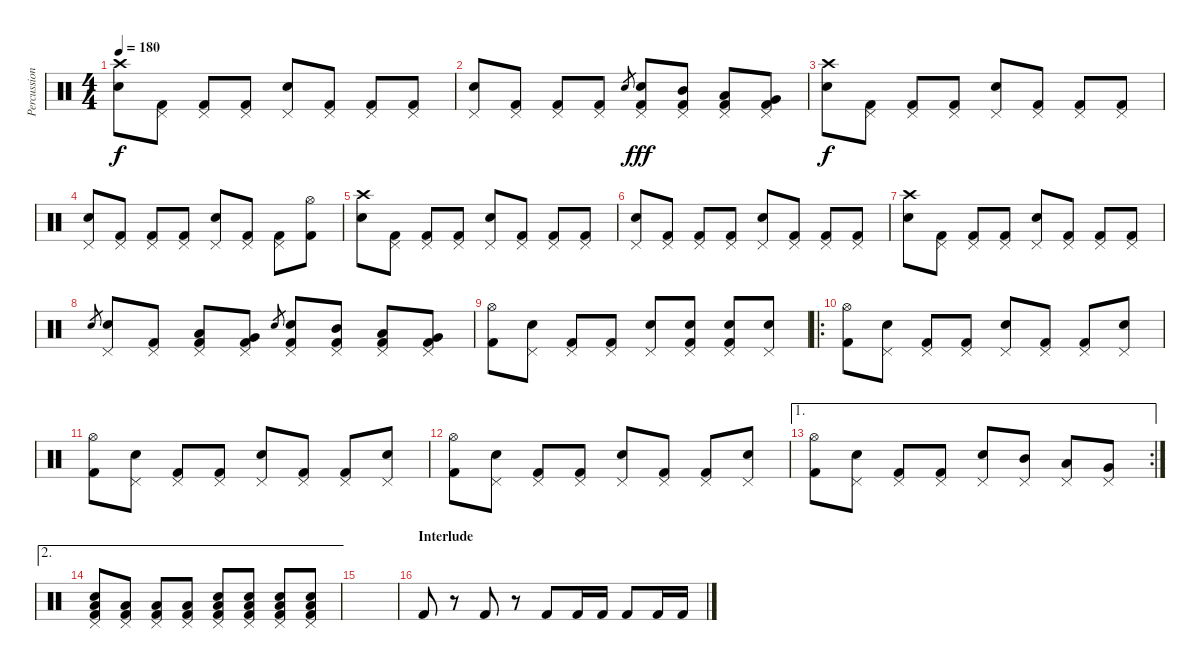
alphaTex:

\track ("Percussion" "Percussion") {instrument percussion}
\staff {score}
\articulation defaults
\ts (4 4)
\tempo 180
\clef neutral
\ks c
("Crash high (hit)" "Electric Snare (hit)").8{dy f} ("Pedal Hi-Hat (hit)" "Kick (hit) 2").8 ("Pedal Hi-Hat (hit)" "Kick (hit) 2").8 ("Pedal Hi-Hat (hit)" "Kick (hit) 2").8 ("Pedal Hi-Hat (hit)" "Electric Snare (hit)").8 ("Pedal Hi-Hat (hit)" "Kick (hit) 2").8 ("Pedal Hi-Hat (hit)" "Kick (hit) 2").8 ("Pedal Hi-Hat (hit)" "Kick (hit) 2").8 |
("Pedal Hi-Hat (hit)" "Electric Snare (hit)").8 ("Pedal Hi-Hat (hit)" "Kick (hit) 2").8 ("Pedal Hi-Hat (hit)" "Kick (hit) 2").8 ("Pedal Hi-Hat (hit)" "Kick (hit) 2").8 "Electric Snare (hit)".8{gr} ("Pedal Hi-Hat (hit)" "Electric Snare (hit)" "Kick (hit) 2").8{dy fff} ("Pedal Hi-Hat (hit)" "Mid Tom (hit)" "Kick (hit) 2").8 ("Pedal Hi-Hat (hit)" "Low Tom (hit)" "Kick (hit) 2").8 ("Pedal Hi-Hat (hit)" "Very Low Tom (hit)" "Kick (hit) 2").8 |
("Crash high (hit)" "Electric Snare (hit)").8{dy f} ("Pedal Hi-Hat (hit)" "Kick (hit) 2").8 ("Pedal Hi-Hat (hit)" "Kick (hit) 2").8 ("Pedal Hi-Hat (hit)" "Kick (hit) 2").8 ("Pedal Hi-Hat (hit)" "Electric Snare (hit)").8 ("Pedal Hi-Hat (hit)" "Kick (hit) 2").8 ("Pedal Hi-Hat (hit)" "Kick (hit) 2").8 ("Pedal Hi-Hat (hit)" "Kick (hit) 2").8 |
("Pedal Hi-Hat (hit)" "Electric Snare (hit)").8 ("Pedal Hi-Hat (hit)" "Kick (hit) 2").8 ("Pedal Hi-Hat (hit)" "Kick (hit) 2").8 ("Pedal Hi-Hat (hit)" "Kick (hit) 2").8 ("Pedal Hi-Hat (hit)" "Electric Snare (hit)").8 ("Pedal Hi-Hat (hit)" "Kick (hit) 2").8 ("Pedal Hi-Hat (hit)" "Kick (hit) 2").8 ("Hi-Hat (open)" "Kick (hit) 2").8 |
("Crash high (hit)" "Electric Snare (hit)").8 ("Pedal Hi-Hat (hit)" "Kick (hit) 2").8 ("Pedal Hi-Hat (hit)" "Kick (hit) 2").8 ("Pedal Hi-Hat (hit)" "Kick (hit) 2").8 ("Pedal Hi-Hat (hit)" "Electric Snare (hit)").8 ("Pedal Hi-Hat (hit)" "Kick (hit) 2").8 ("Pedal Hi-Hat (hit)" "Kick (hit) 2").8 ("Pedal Hi-Hat (hit)" "Kick (hit) 2").8 |
("Pedal Hi-Hat (hit)" "Electric Snare (hit)").8 ("Pedal Hi-Hat (hit)" "Kick (hit) 2").8 ("Pedal Hi-Hat (hit)" "Kick (hit) 2").8 ("Pedal Hi-Hat (hit)" "Kick (hit) 2").8 ("Pedal Hi-Hat (hit)" "Electric Snare (hit)").8 ("Pedal Hi-Hat (hit)" "Kick (hit) 2").8 ("Pedal Hi-Hat (hit)" "Kick (hit) 2").8 ("Pedal Hi-Hat (hit)" "Kick (hit) 2").8 |
("Crash high (hit)" "Electric Snare (hit)").8 ("Pedal Hi-Hat (hit)" "Kick (hit) 2").8 ("Pedal Hi-Hat (hit)" "Kick (hit) 2").8 ("Pedal Hi-Hat (hit)" "Kick (hit) 2").8 ("Pedal Hi-Hat (hit)" "Electric Snare (hit)").8 ("Pedal Hi-Hat (hit)" "Kick (hit) 2").8 ("Pedal Hi-Hat (hit)" "Kick (hit) 2").8 ("Pedal Hi-Hat (hit)" "Kick (hit) 2").8 |
"Electric Snare (hit)".8{gr} ("Pedal Hi-Hat (hit)" "Electric Snare (hit)").8 ("Pedal Hi-Hat (hit)" "Kick (hit) 2").8 ("Pedal Hi-Hat (hit)" "Low Tom (hit)" "Kick (hit) 2").8 ("Pedal Hi-Hat (hit)" "Very Low Tom (hit)" "Kick (hit) 2").8 "Electric Snare (hit)".8{gr} ("Pedal Hi-Hat (hit)" "Electric Snare (hit)" "Kick (hit) 2").8 ("Pedal Hi-Hat (hit)" "Mid Tom (hit)" "Kick (hit) 2").8 ("Pedal Hi-Hat (hit)" "Low Tom (hit)" "Kick (hit) 2").8 ("Pedal Hi-Hat (hit)" "Very Low Tom (hit)" "Kick (hit) 2").8 |
("Hi-Hat (open)" "Kick (hit) 2").8 ("Pedal Hi-Hat (hit)" "Electric Snare (hit)").8 ("Pedal Hi-Hat (hit)" "Kick (hit) 2").8 ("Pedal Hi-Hat (hit)" "Kick (hit) 2").8 ("Pedal Hi-Hat (hit)" "Electric Snare (hit)").8 ("Pedal Hi-Hat (hit)" "Electric Snare (hit)" "Kick (hit) 2").8 ("Pedal Hi-Hat (hit)" "Electric Snare (hit)" "Kick (hit) 2").8 ("Pedal Hi-Hat (hit)" "Electric Snare (hit)").8 |
\ro
("Hi-Hat (open)" "Kick (hit) 2").8 ("Pedal Hi-Hat (hit)" "Electric Snare (hit)").8 ("Pedal Hi-Hat (hit)" "Kick (hit) 2").8 ("Pedal Hi-Hat (hit)" "Kick (hit) 2").8 ("Pedal Hi-Hat (hit)" "Electric Snare (hit)").8 ("Pedal Hi-Hat (hit)" "Kick (hit) 2").8 ("Pedal Hi-Hat (hit)" "Kick (hit) 2").8 ("Pedal Hi-Hat (hit)" "Electric Snare (hit)").8 |
("Hi-Hat (open)" "Kick (hit) 2").8 ("Pedal Hi-Hat (hit)" "Electric Snare (hit)").8 ("Pedal Hi-Hat (hit)" "Kick (hit) 2").8 ("Pedal Hi-Hat (hit)" "Kick (hit) 2").8 ("Pedal Hi-Hat (hit)" "Electric Snare (hit)").8 ("Pedal Hi-Hat (hit)" "Kick (hit) 2").8 ("Pedal Hi-Hat (hit)" "Kick (hit) 2").8 ("Pedal Hi-Hat (hit)" "Electric Snare (hit)").8 |
("Hi-Hat (open)" "Kick (hit) 2").8 ("Pedal Hi-Hat (hit)" "Electric Snare (hit)").8 ("Pedal Hi-Hat (hit)" "Kick (hit) 2").8 ("Pedal Hi-Hat (hit)" "Kick (hit) 2").8 ("Pedal Hi-Hat (hit)" "Electric Snare (hit)").8 ("Pedal Hi-Hat (hit)" "Kick (hit) 2").8 ("Pedal Hi-Hat (hit)" "Kick (hit) 2").8 ("Pedal Hi-Hat (hit)" "Electric Snare (hit)").8 |
\ae 1
\rc 2
("Hi-Hat (open)" "Kick (hit) 2").8 ("Pedal Hi-Hat (hit)" "Electric Snare (hit)").8 ("Pedal Hi-Hat (hit)" "Kick (hit) 2").8 ("Pedal Hi-Hat (hit)" "Kick (hit) 2").8 ("Pedal Hi-Hat (hit)" "Electric Snare (hit)").8 ("Pedal Hi-Hat (hit)" "Mid Tom (hit)").8 ("Pedal Hi-Hat (hit)" "Low Tom (hit)").8 ("Pedal Hi-Hat (hit)" "Very Low Tom (hit)").8 |
\ae 2
("Pedal Hi-Hat (hit)" "Low Tom (hit)" "Snare (hit) 2" "Kick (hit) 2").8 ("Pedal Hi-Hat (hit)" "Low Tom (hit)" "Kick (hit) 2").8 ("Pedal Hi-Hat (hit)" "Low Tom (hit)" "Kick (hit) 2").8 ("Pedal Hi-Hat (hit)" "Low Tom (hit)" "Kick (hit) 2").8 ("Pedal Hi-Hat (hit)" "Low Tom (hit)" "Snare (hit) 2" "Kick (hit) 2").8 ("Pedal Hi-Hat (hit)" "Low Tom (hit)" "Snare (hit) 2" "Kick (hit) 2").8 ("Pedal Hi-Hat (hit)" "Low Tom (hit)" "Snare (hit) 2" "Kick (hit) 2").8 ("Pedal Hi-Hat (hit)" "Low Tom (hit)" "Snare (hit) 2" "Kick (hit) 2").8 |
|
\section ("" "Interlude")
"Kick (hit) 2".8 r.8 "Kick (hit) 2".8 r.8 "Kick (hit) 2".8 "Kick (hit) 2".16 "Kick (hit) 2".16 "Kick (hit) 2".8 "Kick (hit) 2".16 "Kick (hit) 2".16
